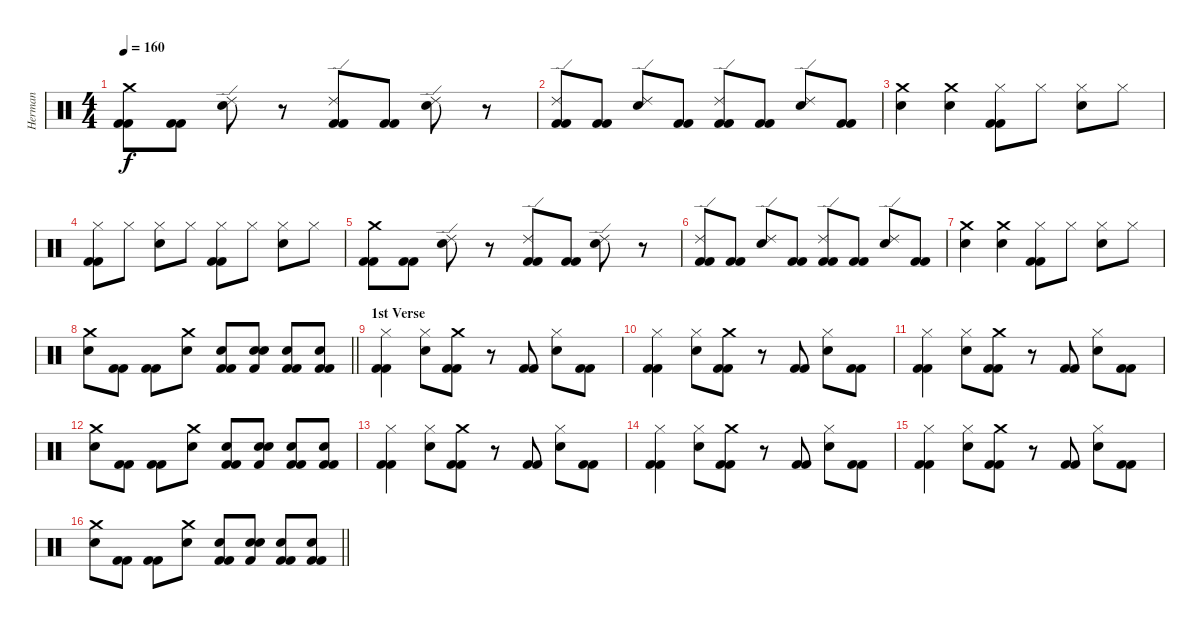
\track ("Herman" "Herman") {instrument percussion}
\staff {score}
\articulation defaults
\ts (4 4)
\tempo 160
\clef neutral
\ks c
("Crash medium (hit)" "Kick (hit) 2" "Kick (hit) 2").8{dy f} ("Kick (hit) 2" "Kick (hit) 2").8 ("Electric Snare (hit)" "Ride (edge) 2").8 r.8 ("Ride (edge) 2" "Kick (hit) 2" "Kick (hit) 2").8 ("Kick (hit) 2" "Kick (hit) 2").8 ("Electric Snare (hit)" "Ride (edge) 2").8 r.8 |
("Kick (hit) 2" "Kick (hit) 2" "Ride (edge) 2").8 ("Kick (hit) 2" "Kick (hit) 2").8 ("Electric Snare (hit)" "Ride (edge) 2").8 ("Kick (hit) 2" "Kick (hit) 2").8 ("Kick (hit) 2" "Kick (hit) 2" "Ride (edge) 2").8 ("Kick (hit) 2" "Kick (hit) 2").8 ("Electric Snare (hit)" "Ride (edge) 2").8 ("Kick (hit) 2" "Kick (hit) 2").8 |
("Crash medium (hit)" "Electric Snare (hit)").4 ("Crash medium (hit)" "Electric Snare (hit)").4 ("Hi-Hat (closed)" "Kick (hit) 2" "Kick (hit) 2").8 "Hi-Hat (closed)".8 ("Electric Snare (hit)" "Hi-Hat (closed)").8 "Hi-Hat (closed)".8 |
("Kick (hit) 2" "Kick (hit) 2" "Hi-Hat (closed)").8 "Hi-Hat (closed)".8 ("Hi-Hat (closed)" "Electric Snare (hit)").8 "Hi-Hat (closed)".8 ("Hi-Hat (closed)" "Kick (hit) 2" "Kick (hit) 2").8 "Hi-Hat (closed)".8 ("Electric Snare (hit)" "Hi-Hat (closed)").8 "Hi-Hat (closed)".8 |
("Crash medium (hit)" "Kick (hit) 2" "Kick (hit) 2").8 ("Kick (hit) 2" "Kick (hit) 2").8 ("Electric Snare (hit)" "Ride (edge) 2").8 r.8 ("Ride (edge) 2" "Kick (hit) 2" "Kick (hit) 2").8 ("Kick (hit) 2" "Kick (hit) 2").8 ("Electric Snare (hit)" "Ride (edge) 2").8 r.8 |
("Kick (hit) 2" "Kick (hit) 2" "Ride (edge) 2").8 ("Kick (hit) 2" "Kick (hit) 2").8 ("Electric Snare (hit)" "Ride (edge) 2").8 ("Kick (hit) 2" "Kick (hit) 2").8 ("Kick (hit) 2" "Kick (hit) 2" "Ride (edge) 2").8 ("Kick (hit) 2" "Kick (hit) 2").8 ("Electric Snare (hit)" "Ride (edge) 2").8 ("Kick (hit) 2" "Kick (hit) 2").8 |
("Crash medium (hit)" "Electric Snare (hit)").4 ("Crash medium (hit)" "Electric Snare (hit)").4 ("Hi-Hat (closed)" "Kick (hit) 2" "Kick (hit) 2").8 "Hi-Hat (closed)".8 ("Electric Snare (hit)" "Hi-Hat (closed)").8 "Hi-Hat (closed)".8 |
\barLineRight lightlight
("Crash medium (hit)" "Electric Snare (hit)").8 ("Kick (hit) 2" "Kick (hit) 2").8 ("Kick (hit) 2" "Kick (hit) 2").8 ("Crash medium (hit)" "Electric Snare (hit)").8 ("Kick (hit) 2" "Electric Snare (hit)" "Kick (hit) 2").8 ("Electric Snare (hit)" "Electric Snare (hit)" "Kick (hit) 2").8 ("Kick (hit) 2" "Kick (hit) 2" "Electric Snare (hit)").8 ("Electric Snare (hit)" "Kick (hit) 2" "Kick (hit) 2").8 |
\section ("" "1st Verse")
("Hi-Hat (closed)" "Kick (hit) 2" "Kick (hit) 2").4 ("Electric Snare (hit)" "Hi-Hat (closed)").8 ("Crash medium (hit)" "Kick (hit) 2" "Kick (hit) 2").8 r.8 ("Kick (hit) 2" "Kick (hit) 2").8 ("Hi-Hat (closed)" "Electric Snare (hit)").8 ("Kick (hit) 2" "Kick (hit) 2").8 |
("Hi-Hat (closed)" "Kick (hit) 2" "Kick (hit) 2").4 ("Electric Snare (hit)" "Hi-Hat (closed)").8 ("Crash medium (hit)" "Kick (hit) 2" "Kick (hit) 2").8 r.8 ("Kick (hit) 2" "Kick (hit) 2").8 ("Hi-Hat (closed)" "Electric Snare (hit)").8 ("Kick (hit) 2" "Kick (hit) 2").8 |
("Hi-Hat (closed)" "Kick (hit) 2" "Kick (hit) 2").4 ("Electric Snare (hit)" "Hi-Hat (closed)").8 ("Crash medium (hit)" "Kick (hit) 2" "Kick (hit) 2").8 r.8 ("Kick (hit) 2" "Kick (hit) 2").8 ("Hi-Hat (closed)" "Electric Snare (hit)").8 ("Kick (hit) 2" "Kick (hit) 2").8 |
("Crash medium (hit)" "Electric Snare (hit)").8 ("Kick (hit) 2" "Kick (hit) 2").8 ("Kick (hit) 2" "Kick (hit) 2").8 ("Crash medium (hit)" "Electric Snare (hit)").8 ("Kick (hit) 2" "Electric Snare (hit)" "Kick (hit) 2").8 ("Electric Snare (hit)" "Electric Snare (hit)" "Kick (hit) 2").8 ("Kick (hit) 2" "Kick (hit) 2" "Electric Snare (hit)").8 ("Electric Snare (hit)" "Kick (hit) 2" "Kick (hit) 2").8 |
("Hi-Hat (closed)" "Kick (hit) 2" "Kick (hit) 2").4 ("Electric Snare (hit)" "Hi-Hat (closed)").8 ("Crash medium (hit)" "Kick (hit) 2" "Kick (hit) 2").8 r.8 ("Kick (hit) 2" "Kick (hit) 2").8 ("Hi-Hat (closed)" "Electric Snare (hit)").8 ("Kick (hit) 2" "Kick (hit) 2").8 |
("Hi-Hat (closed)" "Kick (hit) 2" "Kick (hit) 2").4 ("Electric Snare (hit)" "Hi-Hat (closed)").8 ("Crash medium (hit)" "Kick (hit) 2" "Kick (hit) 2").8 r.8 ("Kick (hit) 2" "Kick (hit) 2").8 ("Hi-Hat (closed)" "Electric Snare (hit)").8 ("Kick (hit) 2" "Kick (hit) 2").8 |
("Hi-Hat (closed)" "Kick (hit) 2" "Kick (hit) 2").4 ("Electric Snare (hit)" "Hi-Hat (closed)").8 ("Crash medium (hit)" "Kick (hit) 2" "Kick (hit) 2").8 r.8 ("Kick (hit) 2" "Kick (hit) 2").8 ("Hi-Hat (closed)" "Electric Snare (hit)").8 ("Kick (hit) 2" "Kick (hit) 2").8 |
\barLineRight lightlight
("Crash medium (hit)" "Electric Snare (hit)").8 ("Kick (hit) 2" "Kick (hit) 2").8 ("Kick (hit) 2" "Kick (hit) 2").8 ("Crash medium (hit)" "Electric Snare (hit)").8 ("Kick (hit) 2" "Electric Snare (hit)" "Kick (hit) 2").8 ("Electric Snare (hit)" "Electric Snare (hit)" "Kick (hit) 2").8 ("Kick (hit) 2" "Kick (hit) 2" "Electric Snare (hit)").8 ("Electric Snare (hit)" "Kick (hit) 2" "Kick (hit) 2").8
